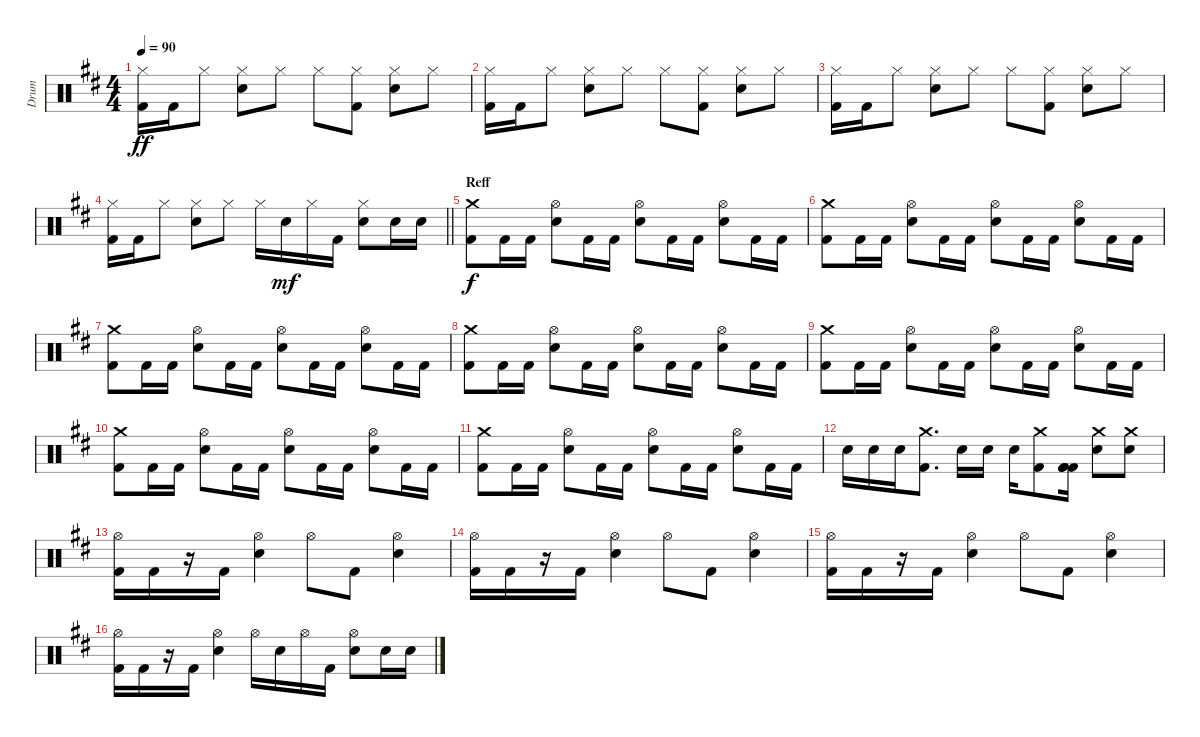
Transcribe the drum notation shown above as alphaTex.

\track ("Drum" "Drum") {instrument percussion}
\staff {score}
\articulation defaults
\ts (4 4)
\tempo 90
\clef neutral
\ks d
("Kick (hit) 2" "Hi-Hat (closed)").16{dy ff} "Kick (hit) 2".16 "Hi-Hat (closed)".8 ("Snare (hit) 2" "Hi-Hat (closed)").8 "Hi-Hat (closed)".8 "Hi-Hat (closed)".8 ("Kick (hit) 2" "Hi-Hat (closed)").8 ("Hi-Hat (closed)" "Snare (hit) 2").8 "Hi-Hat (closed)".8 |
("Kick (hit) 2" "Hi-Hat (closed)").16 "Kick (hit) 2".16 "Hi-Hat (closed)".8 ("Snare (hit) 2" "Hi-Hat (closed)").8 "Hi-Hat (closed)".8 "Hi-Hat (closed)".8 ("Kick (hit) 2" "Hi-Hat (closed)").8 ("Hi-Hat (closed)" "Snare (hit) 2").8 "Hi-Hat (closed)".8 |
("Kick (hit) 2" "Hi-Hat (closed)").16 "Kick (hit) 2".16 "Hi-Hat (closed)".8 ("Snare (hit) 2" "Hi-Hat (closed)").8 "Hi-Hat (closed)".8 "Hi-Hat (closed)".8 ("Kick (hit) 2" "Hi-Hat (closed)").8 ("Hi-Hat (closed)" "Snare (hit) 2").8 "Hi-Hat (closed)".8 |
\barLineRight lightlight
("Kick (hit) 2" "Hi-Hat (closed)").16 "Kick (hit) 2".16 "Hi-Hat (closed)".8 ("Snare (hit) 2" "Hi-Hat (closed)").8 "Hi-Hat (closed)".8 "Hi-Hat (closed)".16 "Snare (hit) 2".16{dy mf} "Hi-Hat (closed)".16 "Kick (hit) 2".16 ("Hi-Hat (closed)" "Snare (hit) 2").8 "Snare (hit) 2".16 "Snare (hit) 2".16 |
\section ("" "Reff")
("Kick (hit) 2" "Crash medium (hit)").8{dy f} "Kick (hit) 2".16 "Kick (hit) 2".16 ("Snare (hit) 2" "Hi-Hat (open)").8 "Kick (hit) 2".16 "Kick (hit) 2".16 ("Snare (hit) 2" "Hi-Hat (open)").8 "Kick (hit) 2".16 "Kick (hit) 2".16 ("Snare (hit) 2" "Hi-Hat (open)").8 "Kick (hit) 2".16 "Kick (hit) 2".16 |
("Kick (hit) 2" "Crash medium (hit)").8 "Kick (hit) 2".16 "Kick (hit) 2".16 ("Snare (hit) 2" "Hi-Hat (open)").8 "Kick (hit) 2".16 "Kick (hit) 2".16 ("Snare (hit) 2" "Hi-Hat (open)").8 "Kick (hit) 2".16 "Kick (hit) 2".16 ("Snare (hit) 2" "Hi-Hat (open)").8 "Kick (hit) 2".16 "Kick (hit) 2".16 |
("Kick (hit) 2" "Crash medium (hit)").8 "Kick (hit) 2".16 "Kick (hit) 2".16 ("Snare (hit) 2" "Hi-Hat (open)").8 "Kick (hit) 2".16 "Kick (hit) 2".16 ("Snare (hit) 2" "Hi-Hat (open)").8 "Kick (hit) 2".16 "Kick (hit) 2".16 ("Snare (hit) 2" "Hi-Hat (open)").8 "Kick (hit) 2".16 "Kick (hit) 2".16 |
("Kick (hit) 2" "Crash medium (hit)").8 "Kick (hit) 2".16 "Kick (hit) 2".16 ("Snare (hit) 2" "Hi-Hat (open)").8 "Kick (hit) 2".16 "Kick (hit) 2".16 ("Snare (hit) 2" "Hi-Hat (open)").8 "Kick (hit) 2".16 "Kick (hit) 2".16 ("Snare (hit) 2" "Hi-Hat (open)").8 "Kick (hit) 2".16 "Kick (hit) 2".16 |
("Kick (hit) 2" "Crash medium (hit)").8 "Kick (hit) 2".16 "Kick (hit) 2".16 ("Snare (hit) 2" "Hi-Hat (open)").8 "Kick (hit) 2".16 "Kick (hit) 2".16 ("Snare (hit) 2" "Hi-Hat (open)").8 "Kick (hit) 2".16 "Kick (hit) 2".16 ("Snare (hit) 2" "Hi-Hat (open)").8 "Kick (hit) 2".16 "Kick (hit) 2".16 |
("Kick (hit) 2" "Crash medium (hit)").8 "Kick (hit) 2".16 "Kick (hit) 2".16 ("Snare (hit) 2" "Hi-Hat (open)").8 "Kick (hit) 2".16 "Kick (hit) 2".16 ("Snare (hit) 2" "Hi-Hat (open)").8 "Kick (hit) 2".16 "Kick (hit) 2".16 ("Snare (hit) 2" "Hi-Hat (open)").8 "Kick (hit) 2".16 "Kick (hit) 2".16 |
("Kick (hit) 2" "Crash medium (hit)").8 "Kick (hit) 2".16 "Kick (hit) 2".16 ("Snare (hit) 2" "Hi-Hat (open)").8 "Kick (hit) 2".16 "Kick (hit) 2".16 ("Snare (hit) 2" "Hi-Hat (open)").8 "Kick (hit) 2".16 "Kick (hit) 2".16 ("Snare (hit) 2" "Hi-Hat (open)").8 "Kick (hit) 2".16 "Kick (hit) 2".16 |
"Snare (hit) 2".16 "Snare (hit) 2".16 "Snare (hit) 2".16 ("Crash medium (hit)" "Kick (hit) 2").8{d} "Snare (hit) 2".16 "Snare (hit) 2".16 "Snare (hit) 2".16 ("Crash medium (hit)" "Kick (hit) 2").8 ("Kick (hit) 2" "Kick (hit) 2" "Kick (hit) 2").16{bd 480} ("Crash medium (hit)" "Snare (hit) 2").8 ("Crash medium (hit)" "Snare (hit) 2").8 |
("Kick (hit) 2" "Hi-Hat (open)").16 "Kick (hit) 2".16 r.16 "Kick (hit) 2".16 ("Hi-Hat (open)" "Snare (hit) 2").4 "Hi-Hat (open)".8 "Kick (hit) 2".8 ("Hi-Hat (open)" "Snare (hit) 2").4 |
("Kick (hit) 2" "Hi-Hat (open)").16 "Kick (hit) 2".16 r.16 "Kick (hit) 2".16 ("Hi-Hat (open)" "Snare (hit) 2").4 "Hi-Hat (open)".8 "Kick (hit) 2".8 ("Hi-Hat (open)" "Snare (hit) 2").4 |
("Kick (hit) 2" "Hi-Hat (open)").16 "Kick (hit) 2".16 r.16 "Kick (hit) 2".16 ("Hi-Hat (open)" "Snare (hit) 2").4 "Hi-Hat (open)".8 "Kick (hit) 2".8 ("Hi-Hat (open)" "Snare (hit) 2").4 |
("Kick (hit) 2" "Hi-Hat (open)").16 "Kick (hit) 2".16 r.16 "Kick (hit) 2".16 ("Hi-Hat (open)" "Snare (hit) 2").4 "Hi-Hat (open)".16 "Snare (hit) 2".16 "Hi-Hat (open)".16 "Kick (hit) 2".16 ("Hi-Hat (open)" "Snare (hit) 2").8 "Snare (hit) 2".16 "Snare (hit) 2".16
